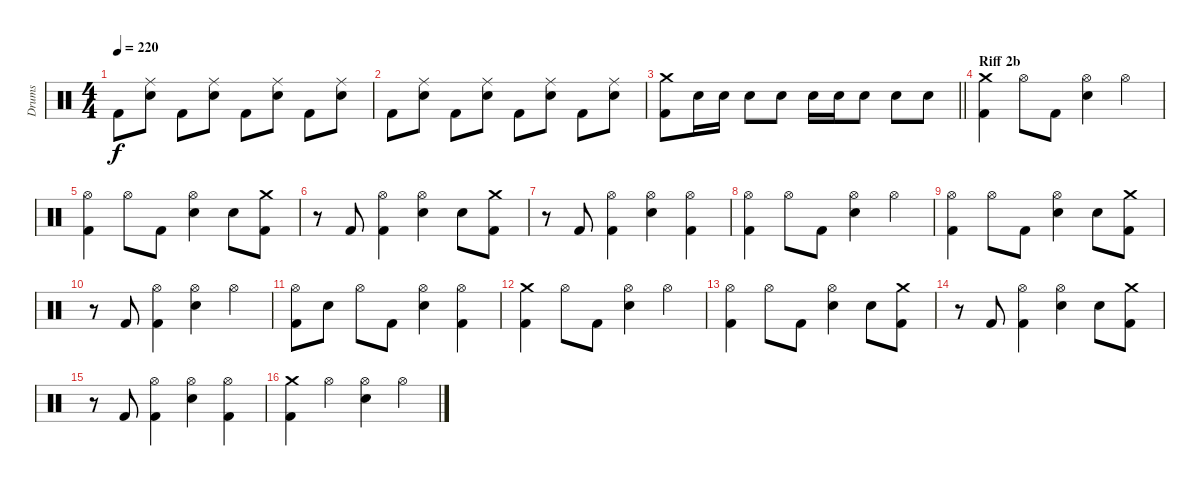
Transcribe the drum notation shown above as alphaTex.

\track ("Drums" "Drums") {instrument percussion}
\staff {score}
\articulation defaults
\ts (4 4)
\tempo 220
\clef neutral
\ks c "Kick (hit) 2".8{dy f}
("Ride (middle)" "Electric Snare (hit)").8 "Kick (hit) 2".8 ("Electric Snare (hit)" "Ride (middle)").8 "Kick (hit) 2".8 ("Ride (middle)" "Electric Snare (hit)").8 "Kick (hit) 2".8 ("Electric Snare (hit)" "Ride (middle)").8 |
"Kick (hit) 2".8 ("Ride (middle)" "Electric Snare (hit)").8 "Kick (hit) 2".8 ("Electric Snare (hit)" "Ride (middle)").8 "Kick (hit) 2".8 ("Ride (middle)" "Electric Snare (hit)").8 "Kick (hit) 2".8 ("Electric Snare (hit)" "Ride (middle)").8 |
\barLineRight lightlight
("Kick (hit) 2" "Crash medium (hit)").8 "Electric Snare (hit)".16 "Electric Snare (hit)".16 "Electric Snare (hit)".8 "Electric Snare (hit)".8 "Electric Snare (hit)".16 "Electric Snare (hit)".16 "Electric Snare (hit)".8 "Electric Snare (hit)".8 "Electric Snare (hit)".8 |
\section ("" "Riff 2b")
("Crash medium (hit)" "Kick (hit) 2").4 "Hi-Hat (open)".8 "Kick (hit) 2".8 ("Electric Snare (hit)" "Hi-Hat (open)").4 "Hi-Hat (open)".4 |
("Hi-Hat (open)" "Kick (hit) 2").4 "Hi-Hat (open)".8 "Kick (hit) 2".8 ("Electric Snare (hit)" "Hi-Hat (open)").4 "Electric Snare (hit)".8 ("Kick (hit) 2" "Crash medium (hit)").8 |
r.8 "Kick (hit) 2".8 ("Kick (hit) 2" "Hi-Hat (open)").4 ("Electric Snare (hit)" "Hi-Hat (open)").4 "Electric Snare (hit)".8 ("Kick (hit) 2" "Crash medium (hit)").8 |
r.8 "Kick (hit) 2".8 ("Kick (hit) 2" "Hi-Hat (open)").4 ("Electric Snare (hit)" "Hi-Hat (open)").4 ("Kick (hit) 2" "Hi-Hat (open)").4 |
("Hi-Hat (open)" "Kick (hit) 2").4 "Hi-Hat (open)".8 "Kick (hit) 2".8 ("Electric Snare (hit)" "Hi-Hat (open)").4 "Hi-Hat (open)".4 |
("Hi-Hat (open)" "Kick (hit) 2").4 "Hi-Hat (open)".8 "Kick (hit) 2".8 ("Electric Snare (hit)" "Hi-Hat (open)").4 "Electric Snare (hit)".8 ("Kick (hit) 2" "Crash medium (hit)").8 |
r.8 "Kick (hit) 2".8 ("Kick (hit) 2" "Hi-Hat (open)").4 ("Electric Snare (hit)" "Hi-Hat (open)").4 "Hi-Hat (open)".4 |
("Kick (hit) 2" "Hi-Hat (open)").8 "Electric Snare (hit)".8 "Hi-Hat (open)".8 "Kick (hit) 2".8 ("Electric Snare (hit)" "Hi-Hat (open)").4 ("Hi-Hat (open)" "Kick (hit) 2").4 |
("Crash medium (hit)" "Kick (hit) 2").4 "Hi-Hat (open)".8 "Kick (hit) 2".8 ("Electric Snare (hit)" "Hi-Hat (open)").4 "Hi-Hat (open)".4 |
("Hi-Hat (open)" "Kick (hit) 2").4 "Hi-Hat (open)".8 "Kick (hit) 2".8 ("Electric Snare (hit)" "Hi-Hat (open)").4 "Electric Snare (hit)".8 ("Kick (hit) 2" "Crash medium (hit)").8 |
r.8 "Kick (hit) 2".8 ("Kick (hit) 2" "Hi-Hat (open)").4 ("Electric Snare (hit)" "Hi-Hat (open)").4 "Electric Snare (hit)".8 ("Kick (hit) 2" "Crash medium (hit)").8 |
r.8 "Kick (hit) 2".8 ("Kick (hit) 2" "Hi-Hat (open)").4 ("Electric Snare (hit)" "Hi-Hat (open)").4 ("Kick (hit) 2" "Hi-Hat (open)").4 |
("Crash medium (hit)" "Kick (hit) 2").4 "Hi-Hat (open)".4 ("Electric Snare (hit)" "Hi-Hat (open)").4 "Hi-Hat (open)".4
